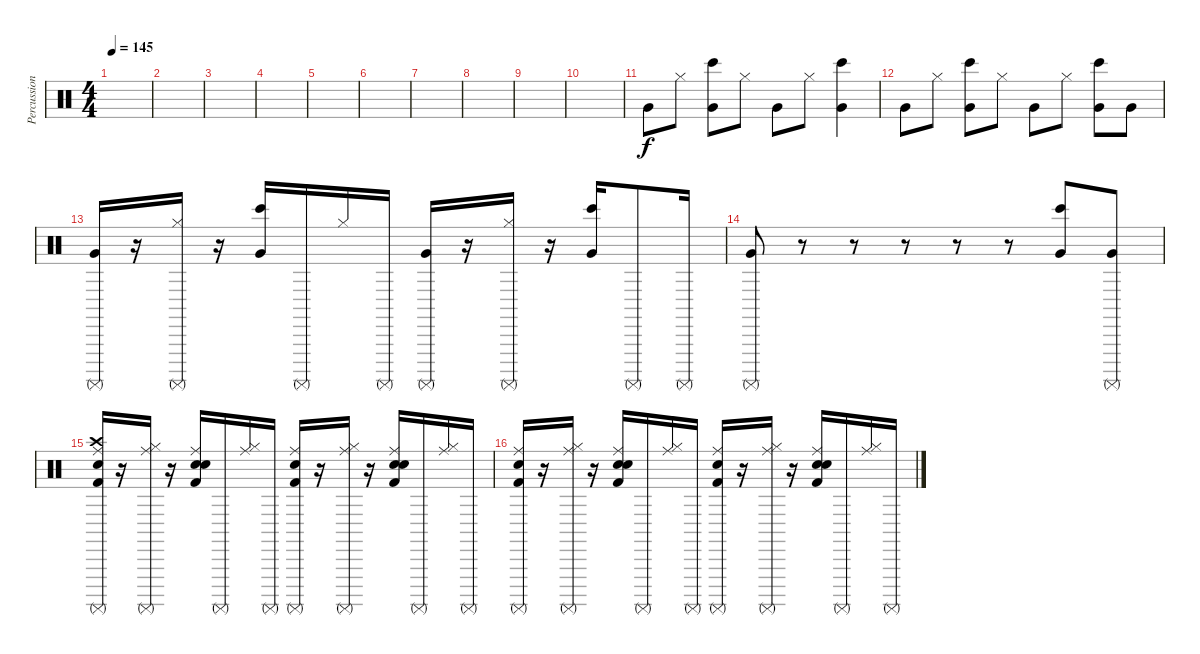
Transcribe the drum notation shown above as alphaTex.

\track ("Percussions" "Percussion") {instrument percussion}
\staff {score}
\articulation defaults
\ts (4 4)
\tempo 145
\clef neutral
\ks c
|
|
|
|
|
|
|
|
|
|
"Very Low Tom (hit)".8 "Hi-Hat (closed)".8 ("Very Low Tom (hit)" "Bongo High (hit)").8 "Hi-Hat (closed)".8 "Very Low Tom (hit)".8 "Hi-Hat (closed)".8 ("Very Low Tom (hit)" "Bongo High (hit)").4 |
"Very Low Tom (hit)".8 "Hi-Hat (closed)".8 ("Very Low Tom (hit)" "Bongo High (hit)").8 "Hi-Hat (closed)".8 "Very Low Tom (hit)".8 "Hi-Hat (closed)".8 ("Very Low Tom (hit)" "Bongo High (hit)").8 "Very Low Tom (hit)".8 |
("Very Low Tom (hit)" "Surdo (mute)").16 r.16 ("Hi-Hat (closed)" "Surdo (mute)").16 r.16 ("Very Low Tom (hit)" "Bongo High (hit)").16 "Surdo (mute)".16 "Hi-Hat (closed)".16 "Surdo (mute)".16 ("Very Low Tom (hit)" "Surdo (mute)").16 r.16 ("Hi-Hat (closed)" "Surdo (mute)").16 r.16 ("Very Low Tom (hit)" "Bongo High (hit)").16 "Surdo (mute)".8 "Surdo (mute)".16 |
("Very Low Tom (hit)" "Surdo (mute)").8 r.8 r.8 r.8 r.8 r.8 ("Very Low Tom (hit)" "Bongo High (hit)").8 ("Very Low Tom (hit)" "Surdo (mute)").8 |
("Kick (hit) 2" "Snare (hit) 2" "Surdo (mute)" "Crash high (hit)" "Ride (middle)").16 r.16 ("Hi-Hat (closed)" "Surdo (mute)" "Ride (middle)").16 r.16 ("Kick (hit) 2" "Electric Snare (hit)" "Hand Clap (hit)" "Ride (middle)").16 "Surdo (mute)".16 ("Hi-Hat (closed)" "Ride (middle)").16 "Surdo (mute)".16 ("Kick (hit) 2" "Snare (hit) 2" "Surdo (mute)" "Ride (middle)").16 r.16 ("Hi-Hat (closed)" "Surdo (mute)" "Ride (middle)").16 r.16 ("Kick (hit) 2" "Electric Snare (hit)" "Hand Clap (hit)" "Ride (middle)").16 "Surdo (mute)".16 ("Hi-Hat (closed)" "Ride (middle)").16 "Surdo (mute)".16 |
("Kick (hit) 2" "Snare (hit) 2" "Surdo (mute)" "Ride (middle)").16 r.16 ("Hi-Hat (closed)" "Surdo (mute)" "Ride (middle)").16 r.16 ("Kick (hit) 2" "Electric Snare (hit)" "Hand Clap (hit)" "Ride (middle)").16 "Surdo (mute)".16 ("Hi-Hat (closed)" "Ride (middle)").16 "Surdo (mute)".16 ("Kick (hit) 2" "Snare (hit) 2" "Surdo (mute)" "Ride (middle)").16 r.16 ("Hi-Hat (closed)" "Surdo (mute)" "Ride (middle)").16 r.16 ("Kick (hit) 2" "Electric Snare (hit)" "Hand Clap (hit)" "Ride (middle)").16 "Surdo (mute)".16 ("Hi-Hat (closed)" "Ride (middle)").16 "Surdo (mute)".16
